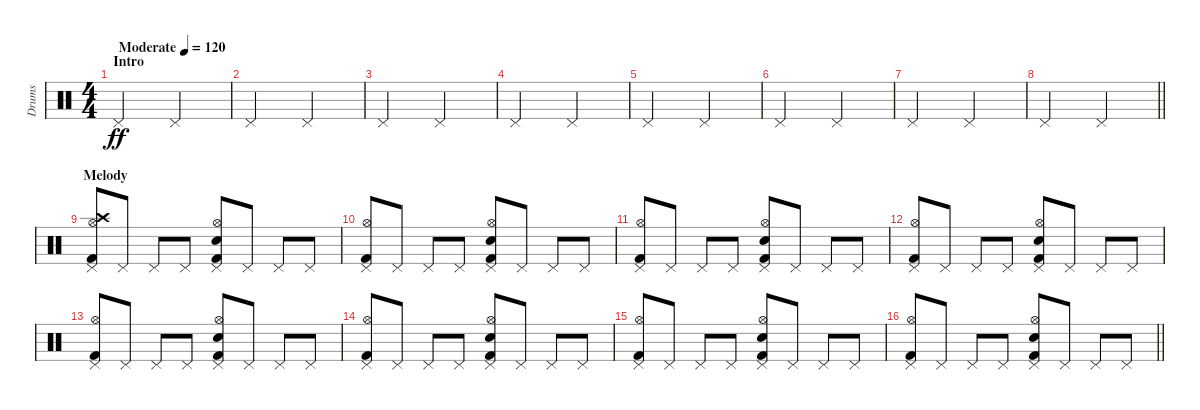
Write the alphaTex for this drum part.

\track ("Drums" "Drums") {instrument percussion}
\staff {score}
\articulation defaults
\ts (4 4)
\section ("" "Intro")
\tempo (120 "Moderate")
\clef neutral
\ks c "Pedal Hi-Hat (hit)".2{dy ff} "Pedal Hi-Hat (hit)".2
|
"Pedal Hi-Hat (hit)".2 "Pedal Hi-Hat (hit)".2 |
"Pedal Hi-Hat (hit)".2 "Pedal Hi-Hat (hit)".2 |
"Pedal Hi-Hat (hit)".2 "Pedal Hi-Hat (hit)".2 |
"Pedal Hi-Hat (hit)".2 "Pedal Hi-Hat (hit)".2 |
"Pedal Hi-Hat (hit)".2 "Pedal Hi-Hat (hit)".2 |
"Pedal Hi-Hat (hit)".2 "Pedal Hi-Hat (hit)".2 |
\barLineRight lightlight "Pedal Hi-Hat (hit)".2 "Pedal Hi-Hat (hit)".2
|
\section ("" "Melody")
("Hi-Hat (open)" "Crash high (hit)" "Pedal Hi-Hat (hit)" "Kick (hit) 2").8 "Pedal Hi-Hat (hit)".8 "Pedal Hi-Hat (hit)".8 "Pedal Hi-Hat (hit)".8 ("Hi-Hat (open)" "Electric Snare (hit)" "Pedal Hi-Hat (hit)" "Kick (hit) 2").8 "Pedal Hi-Hat (hit)".8 "Pedal Hi-Hat (hit)".8 "Pedal Hi-Hat (hit)".8 |
("Hi-Hat (open)" "Pedal Hi-Hat (hit)" "Kick (hit) 2").8 "Pedal Hi-Hat (hit)".8 "Pedal Hi-Hat (hit)".8 "Pedal Hi-Hat (hit)".8 ("Hi-Hat (open)" "Electric Snare (hit)" "Pedal Hi-Hat (hit)" "Kick (hit) 2").8 "Pedal Hi-Hat (hit)".8 "Pedal Hi-Hat (hit)".8 "Pedal Hi-Hat (hit)".8 |
("Hi-Hat (open)" "Pedal Hi-Hat (hit)" "Kick (hit) 2").8 "Pedal Hi-Hat (hit)".8 "Pedal Hi-Hat (hit)".8 "Pedal Hi-Hat (hit)".8 ("Hi-Hat (open)" "Electric Snare (hit)" "Pedal Hi-Hat (hit)" "Kick (hit) 2").8 "Pedal Hi-Hat (hit)".8 "Pedal Hi-Hat (hit)".8 "Pedal Hi-Hat (hit)".8 |
("Hi-Hat (open)" "Pedal Hi-Hat (hit)" "Kick (hit) 2").8 "Pedal Hi-Hat (hit)".8 "Pedal Hi-Hat (hit)".8 "Pedal Hi-Hat (hit)".8 ("Hi-Hat (open)" "Electric Snare (hit)" "Pedal Hi-Hat (hit)" "Kick (hit) 2").8 "Pedal Hi-Hat (hit)".8 "Pedal Hi-Hat (hit)".8 "Pedal Hi-Hat (hit)".8 |
("Hi-Hat (open)" "Pedal Hi-Hat (hit)" "Kick (hit) 2").8 "Pedal Hi-Hat (hit)".8 "Pedal Hi-Hat (hit)".8 "Pedal Hi-Hat (hit)".8 ("Hi-Hat (open)" "Electric Snare (hit)" "Pedal Hi-Hat (hit)" "Kick (hit) 2").8 "Pedal Hi-Hat (hit)".8 "Pedal Hi-Hat (hit)".8 "Pedal Hi-Hat (hit)".8 |
("Hi-Hat (open)" "Pedal Hi-Hat (hit)" "Kick (hit) 2").8 "Pedal Hi-Hat (hit)".8 "Pedal Hi-Hat (hit)".8 "Pedal Hi-Hat (hit)".8 ("Hi-Hat (open)" "Electric Snare (hit)" "Pedal Hi-Hat (hit)" "Kick (hit) 2").8 "Pedal Hi-Hat (hit)".8 "Pedal Hi-Hat (hit)".8 "Pedal Hi-Hat (hit)".8 |
("Hi-Hat (open)" "Pedal Hi-Hat (hit)" "Kick (hit) 2").8 "Pedal Hi-Hat (hit)".8 "Pedal Hi-Hat (hit)".8 "Pedal Hi-Hat (hit)".8 ("Hi-Hat (open)" "Electric Snare (hit)" "Pedal Hi-Hat (hit)" "Kick (hit) 2").8 "Pedal Hi-Hat (hit)".8 "Pedal Hi-Hat (hit)".8 "Pedal Hi-Hat (hit)".8 |
\barLineRight lightlight
("Hi-Hat (open)" "Pedal Hi-Hat (hit)" "Kick (hit) 2").8 "Pedal Hi-Hat (hit)".8 "Pedal Hi-Hat (hit)".8 "Pedal Hi-Hat (hit)".8 ("Hi-Hat (open)" "Electric Snare (hit)" "Pedal Hi-Hat (hit)" "Kick (hit) 2").8 "Pedal Hi-Hat (hit)".8 "Pedal Hi-Hat (hit)".8 "Pedal Hi-Hat (hit)".8
